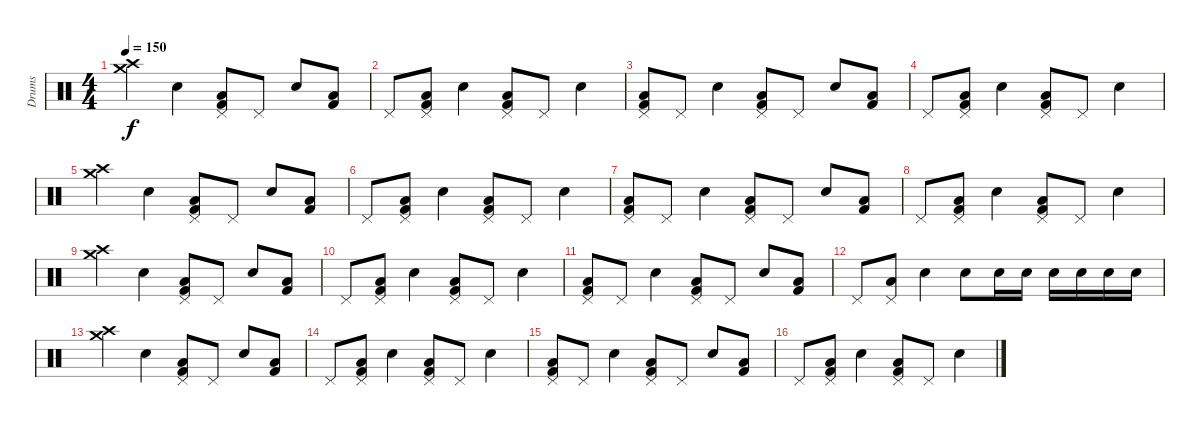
\track ("Drums" "Drums") {instrument percussion}
\staff {score}
\articulation defaults
\ts (4 4)
\tempo 150
\clef neutral
\ks c
("Crash high (hit)" "Crash medium (hit)").4{dy f} "Snare (hit) 2".4 ("Pedal Hi-Hat (hit)" "Low Floor Tom (hit)" "Kick (hit) 2").8 "Pedal Hi-Hat (hit)".8 "Snare (hit) 2".8 ("Low Floor Tom (hit)" "Kick (hit) 2").8 |
"Pedal Hi-Hat (hit)".8 ("Pedal Hi-Hat (hit)" "Low Floor Tom (hit)" "Kick (hit) 2").8 "Snare (hit) 2".4 ("Pedal Hi-Hat (hit)" "Low Floor Tom (hit)" "Kick (hit) 2").8 "Pedal Hi-Hat (hit)".8 "Snare (hit) 2".4 |
("Pedal Hi-Hat (hit)" "Low Floor Tom (hit)" "Kick (hit) 2").8 "Pedal Hi-Hat (hit)".8 "Snare (hit) 2".4 ("Pedal Hi-Hat (hit)" "Low Floor Tom (hit)" "Kick (hit) 2").8 "Pedal Hi-Hat (hit)".8 "Snare (hit) 2".8 ("Low Floor Tom (hit)" "Kick (hit) 2").8 |
"Pedal Hi-Hat (hit)".8 ("Pedal Hi-Hat (hit)" "Low Floor Tom (hit)" "Kick (hit) 2").8 "Snare (hit) 2".4 ("Pedal Hi-Hat (hit)" "Low Floor Tom (hit)" "Kick (hit) 2").8 "Pedal Hi-Hat (hit)".8 "Snare (hit) 2".4 |
("Crash high (hit)" "Crash medium (hit)").4 "Snare (hit) 2".4 ("Pedal Hi-Hat (hit)" "Low Floor Tom (hit)" "Kick (hit) 2").8 "Pedal Hi-Hat (hit)".8 "Snare (hit) 2".8 ("Low Floor Tom (hit)" "Kick (hit) 2").8 |
"Pedal Hi-Hat (hit)".8 ("Pedal Hi-Hat (hit)" "Low Floor Tom (hit)" "Kick (hit) 2").8 "Snare (hit) 2".4 ("Pedal Hi-Hat (hit)" "Low Floor Tom (hit)" "Kick (hit) 2").8 "Pedal Hi-Hat (hit)".8 "Snare (hit) 2".4 |
("Pedal Hi-Hat (hit)" "Low Floor Tom (hit)" "Kick (hit) 2").8 "Pedal Hi-Hat (hit)".8 "Snare (hit) 2".4 ("Pedal Hi-Hat (hit)" "Low Floor Tom (hit)" "Kick (hit) 2").8 "Pedal Hi-Hat (hit)".8 "Snare (hit) 2".8 ("Low Floor Tom (hit)" "Kick (hit) 2").8 |
"Pedal Hi-Hat (hit)".8 ("Pedal Hi-Hat (hit)" "Low Floor Tom (hit)" "Kick (hit) 2").8 "Snare (hit) 2".4 ("Pedal Hi-Hat (hit)" "Low Floor Tom (hit)" "Kick (hit) 2").8 "Pedal Hi-Hat (hit)".8 "Snare (hit) 2".4 |
("Crash high (hit)" "Crash medium (hit)").4 "Snare (hit) 2".4 ("Pedal Hi-Hat (hit)" "Low Floor Tom (hit)" "Kick (hit) 2").8 "Pedal Hi-Hat (hit)".8 "Snare (hit) 2".8 ("Low Floor Tom (hit)" "Kick (hit) 2").8 |
"Pedal Hi-Hat (hit)".8 ("Pedal Hi-Hat (hit)" "Low Floor Tom (hit)" "Kick (hit) 2").8 "Snare (hit) 2".4 ("Pedal Hi-Hat (hit)" "Low Floor Tom (hit)" "Kick (hit) 2").8 "Pedal Hi-Hat (hit)".8 "Snare (hit) 2".4 |
("Pedal Hi-Hat (hit)" "Low Floor Tom (hit)" "Kick (hit) 2").8 "Pedal Hi-Hat (hit)".8 "Snare (hit) 2".4 ("Pedal Hi-Hat (hit)" "Low Floor Tom (hit)" "Kick (hit) 2").8 "Pedal Hi-Hat (hit)".8 "Snare (hit) 2".8 ("Low Floor Tom (hit)" "Kick (hit) 2").8 |
"Pedal Hi-Hat (hit)".8 ("Low Floor Tom (hit)" "Pedal Hi-Hat (hit)").8 "Snare (hit) 2".4 "Snare (hit) 2".8 "Snare (hit) 2".16 "Snare (hit) 2".16 "Snare (hit) 2".16 "Snare (hit) 2".16 "Snare (hit) 2".16 "Snare (hit) 2".16 |
("Crash high (hit)" "Crash medium (hit)").4 "Snare (hit) 2".4 ("Pedal Hi-Hat (hit)" "Low Floor Tom (hit)" "Kick (hit) 2").8 "Pedal Hi-Hat (hit)".8 "Snare (hit) 2".8 ("Low Floor Tom (hit)" "Kick (hit) 2").8 |
"Pedal Hi-Hat (hit)".8 ("Pedal Hi-Hat (hit)" "Low Floor Tom (hit)" "Kick (hit) 2").8 "Snare (hit) 2".4 ("Pedal Hi-Hat (hit)" "Low Floor Tom (hit)" "Kick (hit) 2").8 "Pedal Hi-Hat (hit)".8 "Snare (hit) 2".4 |
("Pedal Hi-Hat (hit)" "Low Floor Tom (hit)" "Kick (hit) 2").8 "Pedal Hi-Hat (hit)".8 "Snare (hit) 2".4 ("Pedal Hi-Hat (hit)" "Low Floor Tom (hit)" "Kick (hit) 2").8 "Pedal Hi-Hat (hit)".8 "Snare (hit) 2".8 ("Low Floor Tom (hit)" "Kick (hit) 2").8 |
"Pedal Hi-Hat (hit)".8 ("Pedal Hi-Hat (hit)" "Low Floor Tom (hit)" "Kick (hit) 2").8 "Snare (hit) 2".4 ("Pedal Hi-Hat (hit)" "Low Floor Tom (hit)" "Kick (hit) 2").8 "Pedal Hi-Hat (hit)".8 "Snare (hit) 2".4
